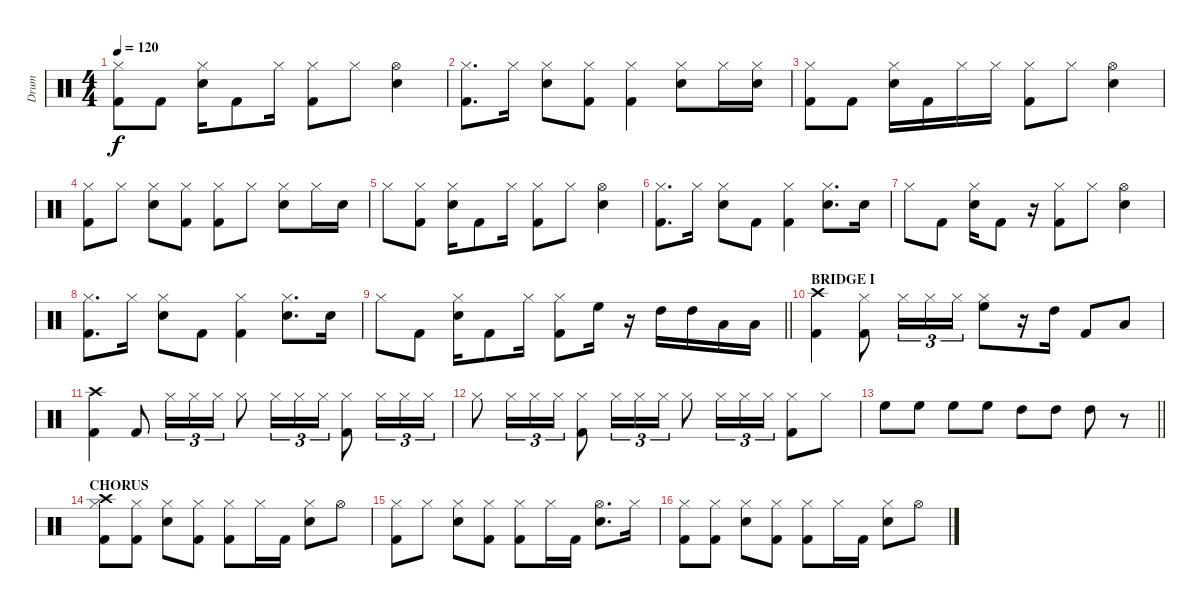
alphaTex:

\track ("Drum" "Drum") {instrument percussion}
\staff {score}
\articulation defaults
\ts (4 4)
\tempo 120
\clef neutral
\ks c
("Kick (hit) 2" "Hi-Hat (closed)").8{dy f} "Kick (hit) 2".8 ("Snare (hit) 2" "Hi-Hat (closed)").16 "Kick (hit) 2".8 "Hi-Hat (closed)".16 ("Kick (hit) 2" "Hi-Hat (closed)").8 "Hi-Hat (closed)".8 ("Snare (hit) 2" "Hi-Hat (open)").4 |
("Kick (hit) 2" "Hi-Hat (closed)").8{d} "Hi-Hat (closed)".16 ("Snare (hit) 2" "Hi-Hat (closed)").8 ("Kick (hit) 2" "Hi-Hat (closed)").8 ("Kick (hit) 2" "Hi-Hat (closed)").4 ("Snare (hit) 2" "Hi-Hat (closed)").8 "Hi-Hat (closed)".16 ("Snare (hit) 2" "Hi-Hat (closed)").16 |
("Kick (hit) 2" "Hi-Hat (closed)").8 "Kick (hit) 2".8 ("Snare (hit) 2" "Hi-Hat (closed)").16 "Kick (hit) 2".16 "Hi-Hat (closed)".16 "Hi-Hat (closed)".16 ("Kick (hit) 2" "Hi-Hat (closed)").8 "Hi-Hat (closed)".8 ("Snare (hit) 2" "Hi-Hat (open)").4 |
("Kick (hit) 2" "Hi-Hat (closed)").8 "Hi-Hat (closed)".8 ("Snare (hit) 2" "Hi-Hat (closed)").8 ("Kick (hit) 2" "Hi-Hat (closed)").8 ("Kick (hit) 2" "Hi-Hat (closed)").8 "Hi-Hat (closed)".8 ("Snare (hit) 2" "Hi-Hat (closed)").8 "Hi-Hat (closed)".16 "Snare (hit) 2".16 |
"Hi-Hat (closed)".8 ("Kick (hit) 2" "Hi-Hat (closed)").8 ("Snare (hit) 2" "Hi-Hat (closed)").16 "Kick (hit) 2".8 "Hi-Hat (closed)".16 ("Kick (hit) 2" "Hi-Hat (closed)").8 "Hi-Hat (closed)".8 ("Snare (hit) 2" "Hi-Hat (open)").4 |
("Kick (hit) 2" "Hi-Hat (closed)").8{d} "Hi-Hat (closed)".16 ("Snare (hit) 2" "Hi-Hat (closed)").8 "Kick (hit) 2".8 ("Kick (hit) 2" "Hi-Hat (closed)").4 ("Snare (hit) 2" "Hi-Hat (closed)").8{d} "Snare (hit) 2".16 |
"Hi-Hat (closed)".8 "Kick (hit) 2".8 ("Snare (hit) 2" "Hi-Hat (closed)").16 "Kick (hit) 2".8 r.16 ("Kick (hit) 2" "Hi-Hat (closed)").8 "Hi-Hat (closed)".8 ("Snare (hit) 2" "Hi-Hat (open)").4 |
("Kick (hit) 2" "Hi-Hat (closed)").8{d} "Hi-Hat (closed)".16 ("Snare (hit) 2" "Hi-Hat (closed)").8 "Kick (hit) 2".8 ("Kick (hit) 2" "Hi-Hat (closed)").4 ("Snare (hit) 2" "Hi-Hat (closed)").8{d} "Snare (hit) 2".16 |
\barLineRight lightlight "Hi-Hat (closed)".8 "Kick (hit) 2".8
("Snare (hit) 2" "Hi-Hat (closed)").16 "Kick (hit) 2".8 "Hi-Hat (closed)".16 ("Kick (hit) 2" "Hi-Hat (closed)").8 "High Floor Tom (hit)".16 r.16 "High Tom (hit)".16 "High Tom (hit)".16 "Low Tom (hit)".16 "Low Tom (hit)".16 |
\section ("" "BRIDGE I")
("Kick (hit) 2" "Crash high (hit)").4 ("Kick (hit) 2" "Hi-Hat (closed)").8 "Hi-Hat (closed)".16{tu (3 2)} "Hi-Hat (closed)".16{tu (3 2)} "Hi-Hat (closed)".16{tu (3 2)} ("Hi-Hat (closed)" "High Floor Tom (hit)").8 r.16 "High Tom (hit)".16 "Kick (hit) 2".8 "Low Tom (hit)".8 |
("Kick (hit) 2" "Crash high (hit)").4 "Kick (hit) 2".8 "Hi-Hat (closed)".16{tu (3 2)} "Hi-Hat (closed)".16{tu (3 2)} "Hi-Hat (closed)".16{tu (3 2)} "Hi-Hat (closed)".8 "Hi-Hat (closed)".16{tu (3 2)} "Hi-Hat (closed)".16{tu (3 2)} "Hi-Hat (closed)".16{tu (3 2)} ("Kick (hit) 2" "Hi-Hat (closed)").8 "Hi-Hat (closed)".16{tu (3 2)} "Hi-Hat (closed)".16{tu (3 2)} "Hi-Hat (closed)".16{tu (3 2)} |
"Hi-Hat (closed)".8 "Hi-Hat (closed)".16{tu (3 2)} "Hi-Hat (closed)".16{tu (3 2)} "Hi-Hat (closed)".16{tu (3 2)} ("Kick (hit) 2" "Hi-Hat (closed)").8 "Hi-Hat (closed)".16{tu (3 2)} "Hi-Hat (closed)".16{tu (3 2)} "Hi-Hat (closed)".16{tu (3 2)} "Hi-Hat (closed)".8 "Hi-Hat (closed)".16{tu (3 2)} "Hi-Hat (closed)".16{tu (3 2)} "Hi-Hat (closed)".16{tu (3 2)} ("Kick (hit) 2" "Hi-Hat (closed)").8 "Hi-Hat (closed)".8 |
\barLineRight lightlight "High Floor Tom (hit)".8 "High Floor Tom (hit)".8 "High Floor Tom (hit)".8 "High Floor Tom (hit)".8 "High Tom (hit)".8 "High Tom (hit)".8 "High Tom (hit)".8
r.8 |
\section ("" "CHORUS")
("Kick (hit) 2" "Hi-Hat (closed)" "Crash high (hit)").8 ("Kick (hit) 2" "Hi-Hat (closed)").8 ("Snare (hit) 2" "Hi-Hat (closed)").8 ("Kick (hit) 2" "Hi-Hat (closed)").8 ("Kick (hit) 2" "Hi-Hat (closed)").8 "Hi-Hat (closed)".16 "Kick (hit) 2".16 ("Snare (hit) 2" "Hi-Hat (closed)").8 "Hi-Hat (open)".8 |
("Kick (hit) 2" "Hi-Hat (closed)").8 "Hi-Hat (closed)".8 ("Snare (hit) 2" "Hi-Hat (closed)").8 ("Kick (hit) 2" "Hi-Hat (closed)").8 ("Kick (hit) 2" "Hi-Hat (closed)").8 "Hi-Hat (closed)".16 "Kick (hit) 2".16 ("Snare (hit) 2" "Hi-Hat (open)").8{d} "Hi-Hat (closed)".16 |
("Kick (hit) 2" "Hi-Hat (closed)").8 ("Kick (hit) 2" "Hi-Hat (closed)").8 ("Snare (hit) 2" "Hi-Hat (closed)").8 ("Kick (hit) 2" "Hi-Hat (closed)").8 ("Kick (hit) 2" "Hi-Hat (closed)").8 "Hi-Hat (closed)".16 "Kick (hit) 2".16 ("Snare (hit) 2" "Hi-Hat (closed)").8 "Hi-Hat (open)".8
